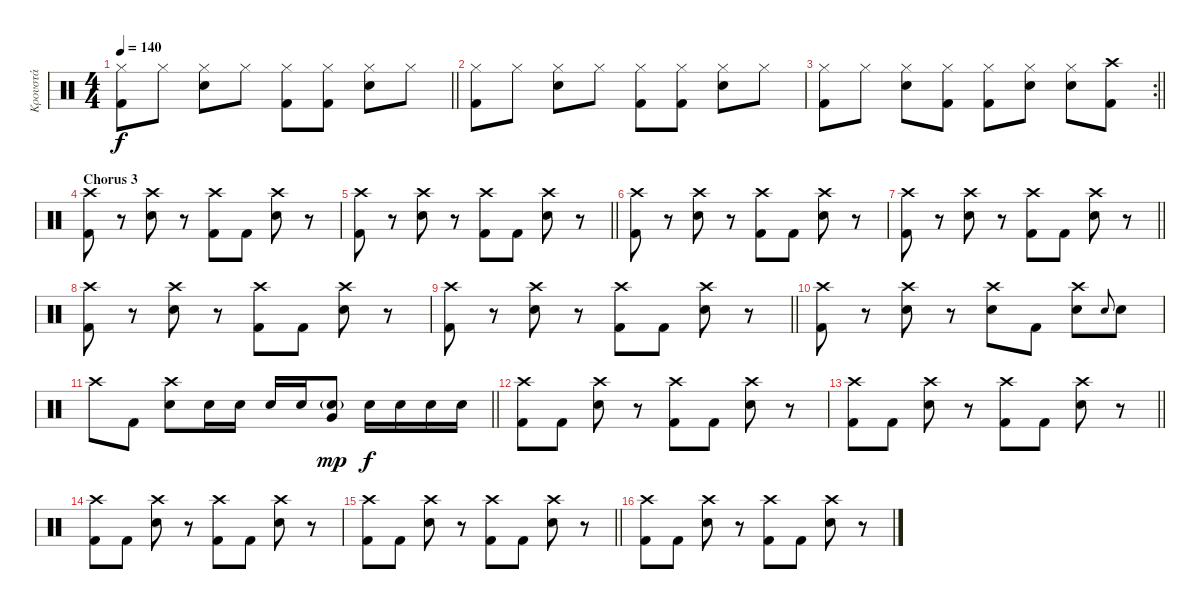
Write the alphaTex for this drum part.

\track ("Κρουστά" "Κρουστά") {instrument percussion}
\staff {score}
\articulation defaults
\ts (4 4)
\tempo 140
\clef neutral
\barLineRight lightlight
\ks c
("Hi-Hat (closed)" "Kick (hit) 2").8{dy f} "Hi-Hat (closed)".8 ("Hi-Hat (closed)" "Electric Snare (hit)").8 "Hi-Hat (closed)".8 ("Hi-Hat (closed)" "Kick (hit) 2").8 ("Hi-Hat (closed)" "Kick (hit) 2").8 ("Hi-Hat (closed)" "Electric Snare (hit)").8 "Hi-Hat (closed)".8 |
("Hi-Hat (closed)" "Kick (hit) 2").8 "Hi-Hat (closed)".8 ("Hi-Hat (closed)" "Electric Snare (hit)").8 "Hi-Hat (closed)".8 ("Hi-Hat (closed)" "Kick (hit) 2").8 ("Hi-Hat (closed)" "Kick (hit) 2").8 ("Hi-Hat (closed)" "Electric Snare (hit)").8 "Hi-Hat (closed)".8 |
\rc 2
\barLineRight lightlight
("Hi-Hat (closed)" "Kick (hit) 2").8 "Hi-Hat (closed)".8 ("Hi-Hat (closed)" "Electric Snare (hit)").8 ("Hi-Hat (closed)" "Kick (hit) 2").8 ("Hi-Hat (closed)" "Kick (hit) 2").8 ("Hi-Hat (closed)" "Electric Snare (hit)").8 ("Hi-Hat (closed)" "Electric Snare (hit)").8 ("Crash high (hit)" "Kick (hit) 2").8 |
\section ("" "Chorus 3")
("Crash high (hit)" "Kick (hit) 2").8 r.8 ("Crash high (hit)" "Electric Snare (hit)").8 r.8 ("Crash high (hit)" "Kick (hit) 2").8 "Kick (hit) 2".8 ("Crash high (hit)" "Electric Snare (hit)").8 r.8 |
\barLineRight lightlight
("Crash high (hit)" "Kick (hit) 2").8 r.8 ("Crash high (hit)" "Electric Snare (hit)").8 r.8 ("Crash high (hit)" "Kick (hit) 2").8 "Kick (hit) 2".8 ("Crash high (hit)" "Electric Snare (hit)").8 r.8 |
("Crash high (hit)" "Kick (hit) 2").8 r.8 ("Crash high (hit)" "Electric Snare (hit)").8 r.8 ("Crash high (hit)" "Kick (hit) 2").8 "Kick (hit) 2".8 ("Crash high (hit)" "Electric Snare (hit)").8 r.8 |
\barLineRight lightlight
("Crash high (hit)" "Kick (hit) 2").8 r.8 ("Crash high (hit)" "Electric Snare (hit)").8 r.8 ("Crash high (hit)" "Kick (hit) 2").8 "Kick (hit) 2".8 ("Crash high (hit)" "Electric Snare (hit)").8 r.8 |
("Crash high (hit)" "Kick (hit) 2").8 r.8 ("Crash high (hit)" "Electric Snare (hit)").8 r.8 ("Crash high (hit)" "Kick (hit) 2").8 "Kick (hit) 2".8 ("Crash high (hit)" "Electric Snare (hit)").8 r.8 |
\barLineRight lightlight
("Crash high (hit)" "Kick (hit) 2").8 r.8 ("Crash high (hit)" "Electric Snare (hit)").8 r.8 ("Crash high (hit)" "Kick (hit) 2").8 "Kick (hit) 2".8 ("Crash high (hit)" "Electric Snare (hit)").8 r.8 |
("Crash high (hit)" "Kick (hit) 2").8 r.8 ("Crash high (hit)" "Electric Snare (hit)").8 r.8 ("Crash high (hit)" "Electric Snare (hit)").8 "Kick (hit) 2".8 ("Crash high (hit)" "Electric Snare (hit)").8 "Electric Snare (hit)".8{gr onbeat} "Electric Snare (hit)".8 |
\barLineRight lightlight "Crash high (hit)".8 "Kick (hit) 2".8
("Crash high (hit)" "Electric Snare (hit)").8 "Electric Snare (hit)".16 "Electric Snare (hit)".16 "Electric Snare (hit)".16 "Electric Snare (hit)".16 ("Electric Snare (hit)"{g} "Very Low Tom (hit)").8{dy mp} "Electric Snare (hit)".16{dy f} "Electric Snare (hit)".16 "Electric Snare (hit)".16 "Electric Snare (hit)".16 |
("Crash high (hit)" "Kick (hit) 2").8 "Kick (hit) 2".8 ("Crash high (hit)" "Electric Snare (hit)").8 r.8 ("Crash high (hit)" "Kick (hit) 2").8 "Kick (hit) 2".8 ("Crash high (hit)" "Electric Snare (hit)").8 r.8 |
\barLineRight lightlight
("Crash high (hit)" "Kick (hit) 2").8 "Kick (hit) 2".8 ("Crash high (hit)" "Electric Snare (hit)").8 r.8 ("Crash high (hit)" "Kick (hit) 2").8 "Kick (hit) 2".8 ("Crash high (hit)" "Electric Snare (hit)").8 r.8 |
("Crash high (hit)" "Kick (hit) 2").8 "Kick (hit) 2".8 ("Crash high (hit)" "Electric Snare (hit)").8 r.8 ("Crash high (hit)" "Kick (hit) 2").8 "Kick (hit) 2".8 ("Crash high (hit)" "Electric Snare (hit)").8 r.8 |
\barLineRight lightlight
("Crash high (hit)" "Kick (hit) 2").8 "Kick (hit) 2".8 ("Crash high (hit)" "Electric Snare (hit)").8 r.8 ("Crash high (hit)" "Kick (hit) 2").8 "Kick (hit) 2".8 ("Crash high (hit)" "Electric Snare (hit)").8 r.8 |
("Crash high (hit)" "Kick (hit) 2").8 "Kick (hit) 2".8 ("Crash high (hit)" "Electric Snare (hit)").8 r.8 ("Crash high (hit)" "Kick (hit) 2").8 "Kick (hit) 2".8 ("Crash high (hit)" "Electric Snare (hit)").8 r.8
